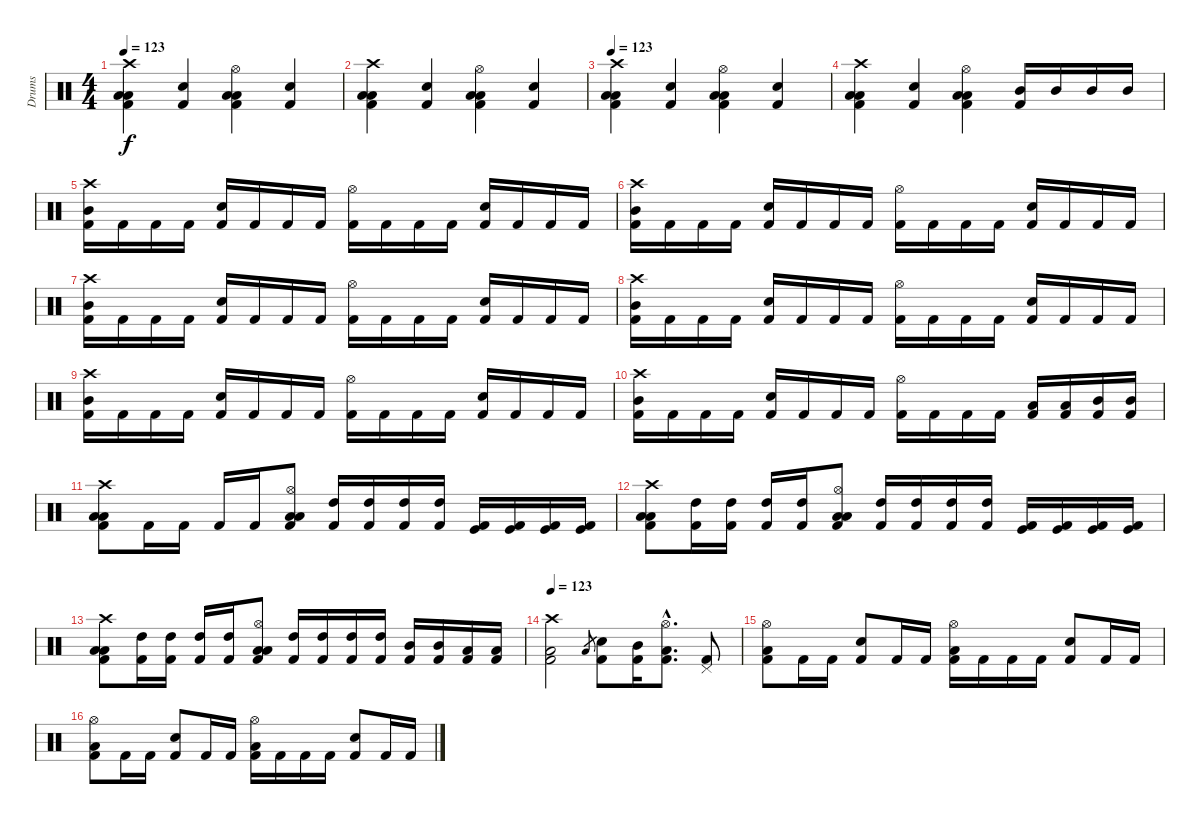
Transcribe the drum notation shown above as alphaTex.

\track ("Drums" "Drums") {instrument percussion}
\staff {score}
\articulation defaults
\ts (4 4)
\tempo 123
\clef neutral
\ks c
("Crash high (hit)" "Low Floor Tom (hit)" "Low Floor Tom (hit)" "Kick (hit) 2").4{dy f} ("Snare (hit) 2" "Kick (hit) 2").4 ("Hi-Hat (open)" "Low Floor Tom (hit)" "Low Floor Tom (hit)" "Kick (hit) 2").4 ("Snare (hit) 2" "Kick (hit) 2").4 |
("Crash high (hit)" "Low Floor Tom (hit)" "Low Floor Tom (hit)" "Kick (hit) 2").4 ("Snare (hit) 2" "Kick (hit) 2").4 ("Hi-Hat (open)" "Low Floor Tom (hit)" "Low Floor Tom (hit)" "Kick (hit) 2").4 ("Snare (hit) 2" "Kick (hit) 2").4 |
\tempo 123
("Crash high (hit)" "Low Floor Tom (hit)" "Low Floor Tom (hit)" "Kick (hit) 2").4 ("Snare (hit) 2" "Kick (hit) 2").4 ("Hi-Hat (open)" "Low Floor Tom (hit)" "Low Floor Tom (hit)" "Kick (hit) 2").4 ("Snare (hit) 2" "Kick (hit) 2").4 |
("Crash high (hit)" "Low Floor Tom (hit)" "Low Floor Tom (hit)" "Kick (hit) 2").4 ("Snare (hit) 2" "Kick (hit) 2").4 ("Hi-Hat (open)" "Low Floor Tom (hit)" "Low Floor Tom (hit)" "Kick (hit) 2").4 ("Mid Tom (hit)" "Kick (hit) 2").16 "Mid Tom (hit)".16 "Mid Tom (hit)".16 "Mid Tom (hit)".16 |
("Crash high (hit)" "Mid Tom (hit)" "Kick (hit) 2").16 "Kick (hit) 2".16 "Kick (hit) 2".16 "Kick (hit) 2".16 ("Snare (hit) 2" "Kick (hit) 2").16 "Kick (hit) 2".16 "Kick (hit) 2".16 "Kick (hit) 2".16 ("Hi-Hat (open)" "Kick (hit) 2").16 "Kick (hit) 2".16 "Kick (hit) 2".16 "Kick (hit) 2".16 ("Snare (hit) 2" "Kick (hit) 2").16 "Kick (hit) 2".16 "Kick (hit) 2".16 "Kick (hit) 2".16 |
("Crash high (hit)" "Mid Tom (hit)" "Kick (hit) 2").16 "Kick (hit) 2".16 "Kick (hit) 2".16 "Kick (hit) 2".16 ("Snare (hit) 2" "Kick (hit) 2").16 "Kick (hit) 2".16 "Kick (hit) 2".16 "Kick (hit) 2".16 ("Hi-Hat (open)" "Kick (hit) 2").16 "Kick (hit) 2".16 "Kick (hit) 2".16 "Kick (hit) 2".16 ("Snare (hit) 2" "Kick (hit) 2").16 "Kick (hit) 2".16 "Kick (hit) 2".16 "Kick (hit) 2".16 |
("Crash high (hit)" "Mid Tom (hit)" "Kick (hit) 2").16 "Kick (hit) 2".16 "Kick (hit) 2".16 "Kick (hit) 2".16 ("Snare (hit) 2" "Kick (hit) 2").16 "Kick (hit) 2".16 "Kick (hit) 2".16 "Kick (hit) 2".16 ("Hi-Hat (open)" "Kick (hit) 2").16 "Kick (hit) 2".16 "Kick (hit) 2".16 "Kick (hit) 2".16 ("Snare (hit) 2" "Kick (hit) 2").16 "Kick (hit) 2".16 "Kick (hit) 2".16 "Kick (hit) 2".16 |
("Crash high (hit)" "Mid Tom (hit)" "Kick (hit) 2").16 "Kick (hit) 2".16 "Kick (hit) 2".16 "Kick (hit) 2".16 ("Snare (hit) 2" "Kick (hit) 2").16 "Kick (hit) 2".16 "Kick (hit) 2".16 "Kick (hit) 2".16 ("Hi-Hat (open)" "Kick (hit) 2").16 "Kick (hit) 2".16 "Kick (hit) 2".16 "Kick (hit) 2".16 ("Snare (hit) 2" "Kick (hit) 2").16 "Kick (hit) 2".16 "Kick (hit) 2".16 "Kick (hit) 2".16 |
("Crash high (hit)" "Mid Tom (hit)" "Kick (hit) 2").16 "Kick (hit) 2".16 "Kick (hit) 2".16 "Kick (hit) 2".16 ("Snare (hit) 2" "Kick (hit) 2").16 "Kick (hit) 2".16 "Kick (hit) 2".16 "Kick (hit) 2".16 ("Hi-Hat (open)" "Kick (hit) 2").16 "Kick (hit) 2".16 "Kick (hit) 2".16 "Kick (hit) 2".16 ("Snare (hit) 2" "Kick (hit) 2").16 "Kick (hit) 2".16 "Kick (hit) 2".16 "Kick (hit) 2".16 |
("Crash high (hit)" "Mid Tom (hit)" "Kick (hit) 2").16 "Kick (hit) 2".16 "Kick (hit) 2".16 "Kick (hit) 2".16 ("Snare (hit) 2" "Kick (hit) 2").16 "Kick (hit) 2".16 "Kick (hit) 2".16 "Kick (hit) 2".16 ("Hi-Hat (open)" "Kick (hit) 2").16 "Kick (hit) 2".16 "Kick (hit) 2".16 "Kick (hit) 2".16 ("Low Tom (hit)" "Kick (hit) 2").16 ("Low Tom (hit)" "Kick (hit) 2").16 ("Mid Tom (hit)" "Kick (hit) 2").16 ("Mid Tom (hit)" "Kick (hit) 2").16 |
("Crash high (hit)" "Low Floor Tom (hit)" "Low Floor Tom (hit)" "Kick (hit) 2").8 "Kick (hit) 2".16 "Kick (hit) 2".16 "Kick (hit) 2".16 "Kick (hit) 2".16 ("Hi-Hat (open)" "Low Tom (hit)" "Low Tom (hit)" "Kick (hit) 2").8 ("High Tom (hit)" "Kick (hit) 2").16 ("High Tom (hit)" "Kick (hit) 2").16 ("High Tom (hit)" "Kick (hit) 2").16 ("High Tom (hit)" "Kick (hit) 2").16 ("Kick (hit)" "Kick (hit) 2").16 ("Kick (hit)" "Kick (hit) 2").16 ("Kick (hit)" "Kick (hit) 2").16 ("Kick (hit)" "Kick (hit) 2").16 |
("Crash high (hit)" "Low Floor Tom (hit)" "Low Floor Tom (hit)" "Kick (hit) 2").8 ("High Tom (hit)" "Kick (hit) 2").16 ("High Tom (hit)" "Kick (hit) 2").16 ("High Tom (hit)" "Kick (hit) 2").16 ("High Tom (hit)" "Kick (hit) 2").16 ("Hi-Hat (open)" "Low Tom (hit)" "Low Tom (hit)" "Kick (hit) 2").8 ("High Tom (hit)" "Kick (hit) 2").16 ("High Tom (hit)" "Kick (hit) 2").16 ("High Tom (hit)" "Kick (hit) 2").16 ("High Tom (hit)" "Kick (hit) 2").16 ("Kick (hit)" "Kick (hit) 2").16 ("Kick (hit)" "Kick (hit) 2").16 ("Kick (hit)" "Kick (hit) 2").16 ("Kick (hit)" "Kick (hit) 2").16 |
("Crash high (hit)" "Low Floor Tom (hit)" "Low Floor Tom (hit)" "Kick (hit) 2").8 ("High Tom (hit)" "Kick (hit) 2").16 ("High Tom (hit)" "Kick (hit) 2").16 ("High Tom (hit)" "Kick (hit) 2").16 ("High Tom (hit)" "Kick (hit) 2").16 ("Hi-Hat (open)" "Low Tom (hit)" "Low Tom (hit)" "Kick (hit) 2").8 ("High Tom (hit)" "Kick (hit) 2").16 ("High Tom (hit)" "Kick (hit) 2").16 ("High Tom (hit)" "Kick (hit) 2").16 ("High Tom (hit)" "Kick (hit) 2").16 ("Mid Tom (hit)" "Kick (hit) 2").16 ("Mid Tom (hit)" "Kick (hit) 2").16 ("Low Tom (hit)" "Kick (hit) 2").16 ("Low Tom (hit)" "Kick (hit) 2").16 |
\tempo 123
("Crash high (hit)" "Low Floor Tom (hit)" "Kick (hit) 2").2 "Low Tom (hit)".8{gr} ("Snare (hit) 2" "Kick (hit) 2").8 ("Mid Tom (hit)" "Kick (hit) 2").16 ("Hi-Hat (open)"{hac} "Low Floor Tom (hit)"{hac} "Kick (hit) 2"{hac}).8{d} ("Pedal Hi-Hat (hit)" "Kick (hit) 2").8 |
("Hi-Hat (open)" "Low Floor Tom (hit)" "Kick (hit) 2").8 "Kick (hit) 2".16 "Kick (hit) 2".16 ("Snare (hit) 2" "Kick (hit) 2").8 "Kick (hit) 2".16 "Kick (hit) 2".16 ("Hi-Hat (open)" "Low Floor Tom (hit)" "Kick (hit) 2").16 "Kick (hit) 2".16 "Kick (hit) 2".16 "Kick (hit) 2".16 ("Snare (hit) 2" "Kick (hit) 2").8 "Kick (hit) 2".16 "Kick (hit) 2".16 |
("Hi-Hat (open)" "Low Floor Tom (hit)" "Kick (hit) 2").8 "Kick (hit) 2".16 "Kick (hit) 2".16 ("Snare (hit) 2" "Kick (hit) 2").8 "Kick (hit) 2".16 "Kick (hit) 2".16 ("Hi-Hat (open)" "Low Floor Tom (hit)" "Kick (hit) 2").16 "Kick (hit) 2".16 "Kick (hit) 2".16 "Kick (hit) 2".16 ("Snare (hit) 2" "Kick (hit) 2").8 "Kick (hit) 2".16 "Kick (hit) 2".16
